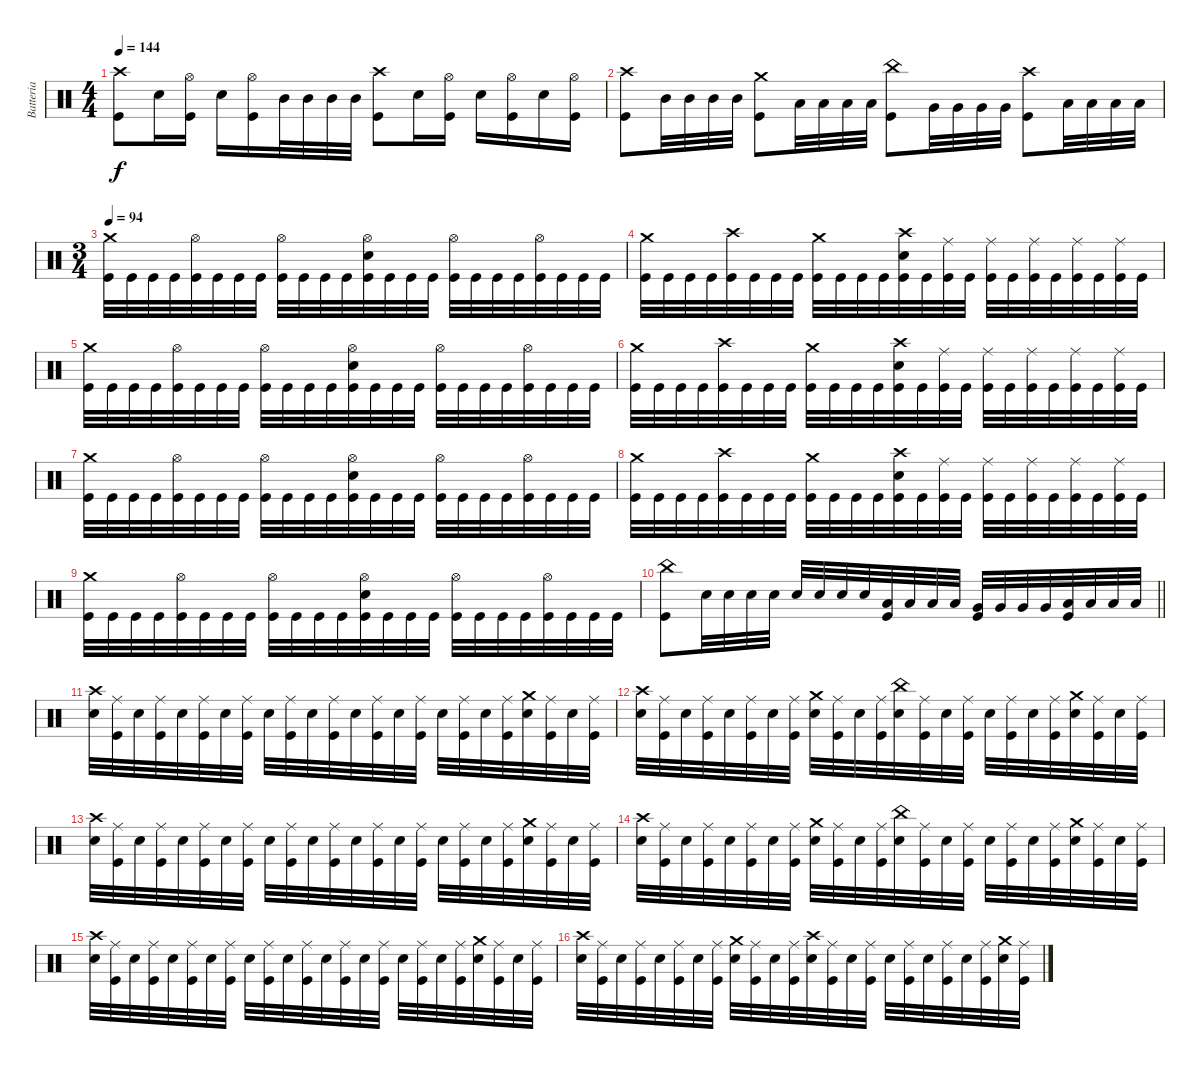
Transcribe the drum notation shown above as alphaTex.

\track ("Batteria" "Batteria") {instrument percussion}
\staff {score}
\articulation defaults
\ts (4 4)
\tempo 144
\clef neutral
\ks c
("Crash high (hit)" "Kick (hit)").8{dy f} "Snare (hit) 2".16 ("Hi-Hat (open)" "Kick (hit)").16 "Snare (hit) 2".16 ("Hi-Hat (open)" "Kick (hit)").16 "Mid Tom (hit)".32 "Mid Tom (hit)".32 "Mid Tom (hit)".32 "Mid Tom (hit)".32 ("Crash high (hit)" "Kick (hit)").8 "Snare (hit) 2".16 ("Hi-Hat (open)" "Kick (hit)").16 "Snare (hit) 2".16 ("Hi-Hat (open)" "Kick (hit)").16 "Snare (hit) 2".16 ("Hi-Hat (open)" "Kick (hit)").16 |
("Crash high (hit)" "Kick (hit)").8 "Mid Tom (hit)".32 "Mid Tom (hit)".32 "Mid Tom (hit)".32 "Mid Tom (hit)".32 ("Crash medium (hit)" "Kick (hit)").8 "Low Tom (hit)".32 "Low Tom (hit)".32 "Low Tom (hit)".32 "Low Tom (hit)".32 ("China (hit)" "Kick (hit)").8 "Very Low Tom (hit)".32 "Very Low Tom (hit)".32 "Very Low Tom (hit)".32 "Very Low Tom (hit)".32 ("Crash high (hit)" "Kick (hit)").8 "Low Floor Tom (hit)".32 "Low Floor Tom (hit)".32 "Low Floor Tom (hit)".32 "Low Floor Tom (hit)".32 |
\ts (3 4)
\tempo 94
("Crash medium (hit)" "Kick (hit)").32 "Kick (hit)".32 "Kick (hit)".32 "Kick (hit)".32 ("Hi-Hat (open)" "Kick (hit)").32 "Kick (hit)".32 "Kick (hit)".32 "Kick (hit)".32 ("Hi-Hat (open)" "Kick (hit)").32 "Kick (hit)".32 "Kick (hit)".32 "Kick (hit)".32 ("Hi-Hat (open)" "Snare (hit) 2" "Kick (hit)").32 "Kick (hit)".32 "Kick (hit)".32 "Kick (hit)".32 ("Hi-Hat (open)" "Kick (hit)").32 "Kick (hit)".32 "Kick (hit)".32 "Kick (hit)".32 ("Hi-Hat (open)" "Kick (hit)").32 "Kick (hit)".32 "Kick (hit)".32 "Kick (hit)".32 |
("Crash medium (hit)" "Kick (hit)").32 "Kick (hit)".32 "Kick (hit)".32 "Kick (hit)".32 ("Crash high (hit)" "Kick (hit)").32 "Kick (hit)".32 "Kick (hit)".32 "Kick (hit)".32 ("Crash medium (hit)" "Kick (hit)").32 "Kick (hit)".32 "Kick (hit)".32 "Kick (hit)".32 ("Crash high (hit)" "Snare (hit) 2" "Kick (hit)").32 "Kick (hit)".32 ("Ride (middle)" "Kick (hit)").32 "Kick (hit)".32 ("Ride (middle)" "Kick (hit)").32 "Kick (hit)".32 ("Ride (middle)" "Kick (hit)").32 "Kick (hit)".32 ("Ride (middle)" "Kick (hit)").32 "Kick (hit)".32 ("Ride (middle)" "Kick (hit)").32 "Kick (hit)".32 |
("Crash medium (hit)" "Kick (hit)").32 "Kick (hit)".32 "Kick (hit)".32 "Kick (hit)".32 ("Hi-Hat (open)" "Kick (hit)").32 "Kick (hit)".32 "Kick (hit)".32 "Kick (hit)".32 ("Hi-Hat (open)" "Kick (hit)").32 "Kick (hit)".32 "Kick (hit)".32 "Kick (hit)".32 ("Hi-Hat (open)" "Snare (hit) 2" "Kick (hit)").32 "Kick (hit)".32 "Kick (hit)".32 "Kick (hit)".32 ("Hi-Hat (open)" "Kick (hit)").32 "Kick (hit)".32 "Kick (hit)".32 "Kick (hit)".32 ("Hi-Hat (open)" "Kick (hit)").32 "Kick (hit)".32 "Kick (hit)".32 "Kick (hit)".32 |
("Crash medium (hit)" "Kick (hit)").32 "Kick (hit)".32 "Kick (hit)".32 "Kick (hit)".32 ("Crash high (hit)" "Kick (hit)").32 "Kick (hit)".32 "Kick (hit)".32 "Kick (hit)".32 ("Crash medium (hit)" "Kick (hit)").32 "Kick (hit)".32 "Kick (hit)".32 "Kick (hit)".32 ("Crash high (hit)" "Snare (hit) 2" "Kick (hit)").32 "Kick (hit)".32 ("Ride (middle)" "Kick (hit)").32 "Kick (hit)".32 ("Ride (middle)" "Kick (hit)").32 "Kick (hit)".32 ("Ride (middle)" "Kick (hit)").32 "Kick (hit)".32 ("Ride (middle)" "Kick (hit)").32 "Kick (hit)".32 ("Ride (middle)" "Kick (hit)").32 "Kick (hit)".32 |
("Crash medium (hit)" "Kick (hit)").32 "Kick (hit)".32 "Kick (hit)".32 "Kick (hit)".32 ("Hi-Hat (open)" "Kick (hit)").32 "Kick (hit)".32 "Kick (hit)".32 "Kick (hit)".32 ("Hi-Hat (open)" "Kick (hit)").32 "Kick (hit)".32 "Kick (hit)".32 "Kick (hit)".32 ("Hi-Hat (open)" "Snare (hit) 2" "Kick (hit)").32 "Kick (hit)".32 "Kick (hit)".32 "Kick (hit)".32 ("Hi-Hat (open)" "Kick (hit)").32 "Kick (hit)".32 "Kick (hit)".32 "Kick (hit)".32 ("Hi-Hat (open)" "Kick (hit)").32 "Kick (hit)".32 "Kick (hit)".32 "Kick (hit)".32 |
("Crash medium (hit)" "Kick (hit)").32 "Kick (hit)".32 "Kick (hit)".32 "Kick (hit)".32 ("Crash high (hit)" "Kick (hit)").32 "Kick (hit)".32 "Kick (hit)".32 "Kick (hit)".32 ("Crash medium (hit)" "Kick (hit)").32 "Kick (hit)".32 "Kick (hit)".32 "Kick (hit)".32 ("Crash high (hit)" "Snare (hit) 2" "Kick (hit)").32 "Kick (hit)".32 ("Ride (middle)" "Kick (hit)").32 "Kick (hit)".32 ("Ride (middle)" "Kick (hit)").32 "Kick (hit)".32 ("Ride (middle)" "Kick (hit)").32 "Kick (hit)".32 ("Ride (middle)" "Kick (hit)").32 "Kick (hit)".32 ("Ride (middle)" "Kick (hit)").32 "Kick (hit)".32 |
("Crash medium (hit)" "Kick (hit)").32 "Kick (hit)".32 "Kick (hit)".32 "Kick (hit)".32 ("Hi-Hat (open)" "Kick (hit)").32 "Kick (hit)".32 "Kick (hit)".32 "Kick (hit)".32 ("Hi-Hat (open)" "Kick (hit)").32 "Kick (hit)".32 "Kick (hit)".32 "Kick (hit)".32 ("Hi-Hat (open)" "Snare (hit) 2" "Kick (hit)").32 "Kick (hit)".32 "Kick (hit)".32 "Kick (hit)".32 ("Hi-Hat (open)" "Kick (hit)").32 "Kick (hit)".32 "Kick (hit)".32 "Kick (hit)".32 ("Hi-Hat (open)" "Kick (hit)").32 "Kick (hit)".32 "Kick (hit)".32 "Kick (hit)".32 |
\barLineRight lightlight
("China (hit)" "Kick (hit)").8 "Snare (hit) 2".32 "Snare (hit) 2".32 "Snare (hit) 2".32 "Snare (hit) 2".32 "Snare (hit) 2".32 "Snare (hit) 2".32 "Snare (hit) 2".32 "Snare (hit) 2".32 ("Low Tom (hit)" "Kick (hit)").32 "Low Tom (hit)".32 "Low Tom (hit)".32 "Low Tom (hit)".32 ("Very Low Tom (hit)" "Kick (hit)").32 "Very Low Tom (hit)".32 "Very Low Tom (hit)".32 "Very Low Tom (hit)".32 ("Low Floor Tom (hit)" "Kick (hit)").32 "Low Floor Tom (hit)".32 "Low Floor Tom (hit)".32 "Low Floor Tom (hit)".32 |
("Crash high (hit)" "Snare (hit) 2").32 ("Ride (middle)" "Kick (hit)").32 "Snare (hit) 2".32 ("Ride (middle)" "Kick (hit)").32 "Snare (hit) 2".32 ("Ride (middle)" "Kick (hit)").32 "Snare (hit) 2".32 ("Ride (middle)" "Kick (hit)").32 "Snare (hit) 2".32 ("Ride (middle)" "Kick (hit)").32 "Snare (hit) 2".32 ("Ride (middle)" "Kick (hit)").32 "Snare (hit) 2".32 ("Ride (middle)" "Kick (hit)").32 "Snare (hit) 2".32 ("Ride (middle)" "Kick (hit)").32 "Snare (hit) 2".32 ("Ride (middle)" "Kick (hit)").32 "Snare (hit) 2".32 ("Ride (middle)" "Kick (hit)").32 ("Crash medium (hit)" "Snare (hit) 2").32 ("Ride (middle)" "Kick (hit)").32 "Snare (hit) 2".32 ("Ride (middle)" "Kick (hit)").32 |
("Crash high (hit)" "Snare (hit) 2").32 ("Ride (middle)" "Kick (hit)").32 "Snare (hit) 2".32 ("Ride (middle)" "Kick (hit)").32 "Snare (hit) 2".32 ("Ride (middle)" "Kick (hit)").32 "Snare (hit) 2".32 ("Ride (middle)" "Kick (hit)").32 ("Crash medium (hit)" "Snare (hit) 2").32 ("Ride (middle)" "Kick (hit)").32 "Snare (hit) 2".32 ("Ride (middle)" "Kick (hit)").32 ("China (hit)" "Snare (hit) 2").32 ("Ride (middle)" "Kick (hit)").32 "Snare (hit) 2".32 ("Ride (middle)" "Kick (hit)").32 "Snare (hit) 2".32 ("Ride (middle)" "Kick (hit)").32 "Snare (hit) 2".32 ("Ride (middle)" "Kick (hit)").32 ("Crash medium (hit)" "Snare (hit) 2").32 ("Ride (middle)" "Kick (hit)").32 "Snare (hit) 2".32 ("Ride (middle)" "Kick (hit)").32 |
("Crash high (hit)" "Snare (hit) 2").32 ("Ride (middle)" "Kick (hit)").32 "Snare (hit) 2".32 ("Ride (middle)" "Kick (hit)").32 "Snare (hit) 2".32 ("Ride (middle)" "Kick (hit)").32 "Snare (hit) 2".32 ("Ride (middle)" "Kick (hit)").32 "Snare (hit) 2".32 ("Ride (middle)" "Kick (hit)").32 "Snare (hit) 2".32 ("Ride (middle)" "Kick (hit)").32 "Snare (hit) 2".32 ("Ride (middle)" "Kick (hit)").32 "Snare (hit) 2".32 ("Ride (middle)" "Kick (hit)").32 "Snare (hit) 2".32 ("Ride (middle)" "Kick (hit)").32 "Snare (hit) 2".32 ("Ride (middle)" "Kick (hit)").32 ("Crash medium (hit)" "Snare (hit) 2").32 ("Ride (middle)" "Kick (hit)").32 "Snare (hit) 2".32 ("Ride (middle)" "Kick (hit)").32 |
("Crash high (hit)" "Snare (hit) 2").32 ("Ride (middle)" "Kick (hit)").32 "Snare (hit) 2".32 ("Ride (middle)" "Kick (hit)").32 "Snare (hit) 2".32 ("Ride (middle)" "Kick (hit)").32 "Snare (hit) 2".32 ("Ride (middle)" "Kick (hit)").32 ("Crash medium (hit)" "Snare (hit) 2").32 ("Ride (middle)" "Kick (hit)").32 "Snare (hit) 2".32 ("Ride (middle)" "Kick (hit)").32 ("China (hit)" "Snare (hit) 2").32 ("Ride (middle)" "Kick (hit)").32 "Snare (hit) 2".32 ("Ride (middle)" "Kick (hit)").32 "Snare (hit) 2".32 ("Ride (middle)" "Kick (hit)").32 "Snare (hit) 2".32 ("Ride (middle)" "Kick (hit)").32 ("Crash medium (hit)" "Snare (hit) 2").32 ("Ride (middle)" "Kick (hit)").32 "Snare (hit) 2".32 ("Ride (middle)" "Kick (hit)").32 |
("Crash high (hit)" "Snare (hit) 2").32 ("Ride (middle)" "Kick (hit)").32 "Snare (hit) 2".32 ("Ride (middle)" "Kick (hit)").32 "Snare (hit) 2".32 ("Ride (middle)" "Kick (hit)").32 "Snare (hit) 2".32 ("Ride (middle)" "Kick (hit)").32 "Snare (hit) 2".32 ("Ride (middle)" "Kick (hit)").32 "Snare (hit) 2".32 ("Ride (middle)" "Kick (hit)").32 "Snare (hit) 2".32 ("Ride (middle)" "Kick (hit)").32 "Snare (hit) 2".32 ("Ride (middle)" "Kick (hit)").32 "Snare (hit) 2".32 ("Ride (middle)" "Kick (hit)").32 "Snare (hit) 2".32 ("Ride (middle)" "Kick (hit)").32 ("Crash medium (hit)" "Snare (hit) 2").32 ("Ride (middle)" "Kick (hit)").32 "Snare (hit) 2".32 ("Ride (middle)" "Kick (hit)").32 |
("Crash high (hit)" "Snare (hit) 2").32 ("Ride (middle)" "Kick (hit)").32 "Snare (hit) 2".32 ("Ride (middle)" "Kick (hit)").32 "Snare (hit) 2".32 ("Ride (middle)" "Kick (hit)").32 "Snare (hit) 2".32 ("Ride (middle)" "Kick (hit)").32 ("Crash medium (hit)" "Snare (hit) 2").32 ("Ride (middle)" "Kick (hit)").32 "Snare (hit) 2".32 ("Ride (middle)" "Kick (hit)").32 ("Crash high (hit)" "Snare (hit) 2").32 ("Ride (middle)" "Kick (hit)").32 "Snare (hit) 2".32 ("Ride (middle)" "Kick (hit)").32 "Snare (hit) 2".32 ("Ride (middle)" "Kick (hit)").32 "Snare (hit) 2".32 ("Ride (middle)" "Kick (hit)").32 "Snare (hit) 2".32 ("Ride (middle)" "Kick (hit)").32 ("Crash medium (hit)" "Snare (hit) 2").32 ("Ride (middle)" "Kick (hit)").32
